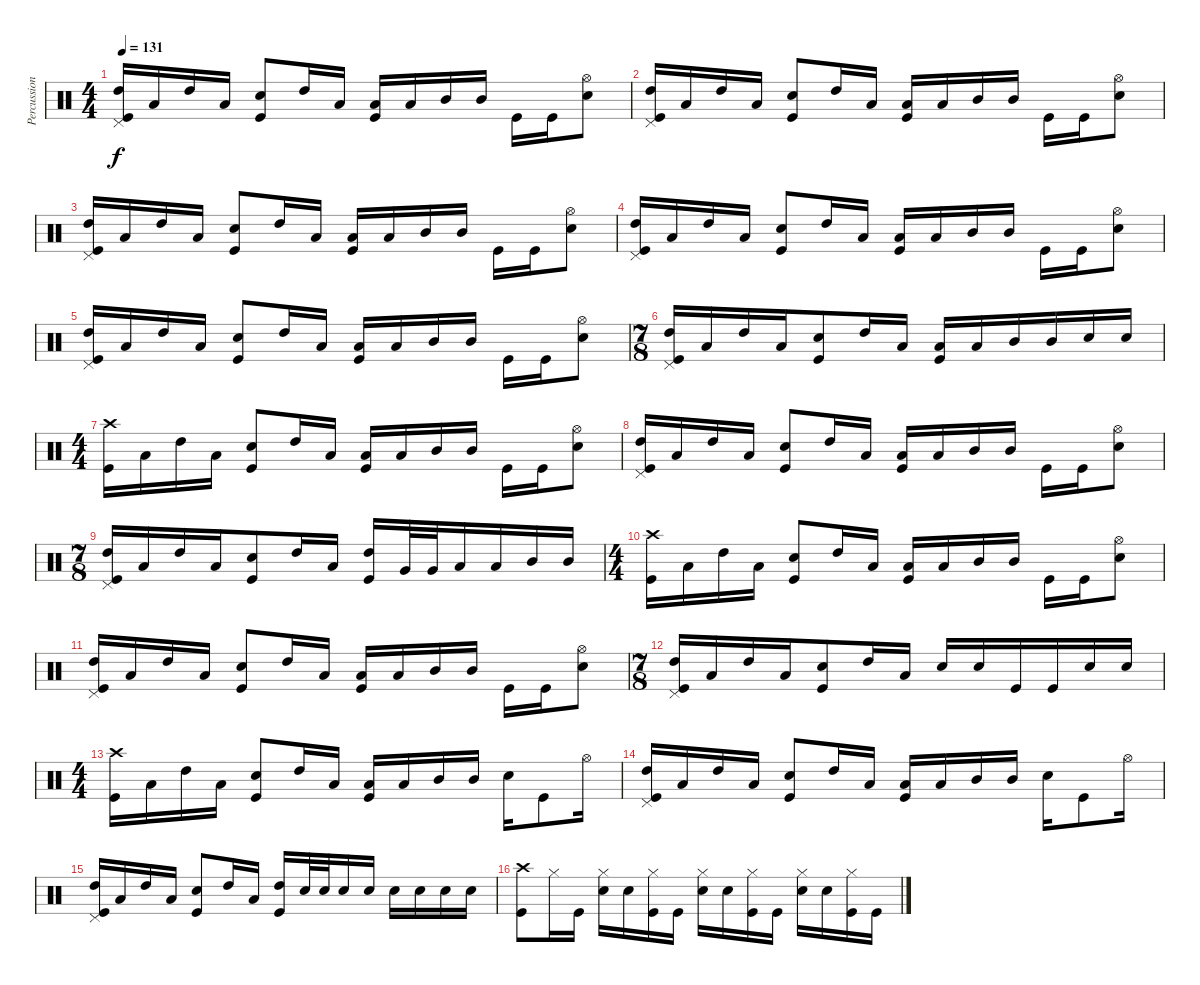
\track ("Percussion" "Percussion") {instrument percussion}
\staff {score}
\articulation defaults
\ts (4 4)
\tempo 131
\clef neutral
\ks c
("High Tom (hit)" "Kick (hit)" "Pedal Hi-Hat (hit)").16{dy f} "Low Tom (hit)".16 "High Tom (hit)".16 "Low Tom (hit)".16 ("Snare (hit) 2" "Kick (hit)").8 "High Tom (hit)".16 "Low Tom (hit)".16 ("Kick (hit)" "Low Tom (hit)").16 "Low Tom (hit)".16 "Mid Tom (hit)".16 "Mid Tom (hit)".16 "Kick (hit)".16 "Kick (hit)".16 ("Snare (hit) 2" "Hi-Hat (open)").8 |
("High Tom (hit)" "Kick (hit)" "Pedal Hi-Hat (hit)").16 "Low Tom (hit)".16 "High Tom (hit)".16 "Low Tom (hit)".16 ("Snare (hit) 2" "Kick (hit)").8 "High Tom (hit)".16 "Low Tom (hit)".16 ("Kick (hit)" "Low Tom (hit)").16 "Low Tom (hit)".16 "Mid Tom (hit)".16 "Mid Tom (hit)".16 "Kick (hit)".16 "Kick (hit)".16 ("Snare (hit) 2" "Hi-Hat (open)").8 |
("High Tom (hit)" "Kick (hit)" "Pedal Hi-Hat (hit)").16 "Low Tom (hit)".16 "High Tom (hit)".16 "Low Tom (hit)".16 ("Snare (hit) 2" "Kick (hit)").8 "High Tom (hit)".16 "Low Tom (hit)".16 ("Kick (hit)" "Low Tom (hit)").16 "Low Tom (hit)".16 "Mid Tom (hit)".16 "Mid Tom (hit)".16 "Kick (hit)".16 "Kick (hit)".16 ("Snare (hit) 2" "Hi-Hat (open)").8 |
("High Tom (hit)" "Kick (hit)" "Pedal Hi-Hat (hit)").16 "Low Tom (hit)".16 "High Tom (hit)".16 "Low Tom (hit)".16 ("Snare (hit) 2" "Kick (hit)").8 "High Tom (hit)".16 "Low Tom (hit)".16 ("Kick (hit)" "Low Tom (hit)").16 "Low Tom (hit)".16 "Mid Tom (hit)".16 "Mid Tom (hit)".16 "Kick (hit)".16 "Kick (hit)".16 ("Snare (hit) 2" "Hi-Hat (open)").8 |
("High Tom (hit)" "Kick (hit)" "Pedal Hi-Hat (hit)").16 "Low Tom (hit)".16 "High Tom (hit)".16 "Low Tom (hit)".16 ("Snare (hit) 2" "Kick (hit)").8 "High Tom (hit)".16 "Low Tom (hit)".16 ("Kick (hit)" "Low Tom (hit)").16 "Low Tom (hit)".16 "Mid Tom (hit)".16 "Mid Tom (hit)".16 "Kick (hit)".16 "Kick (hit)".16 ("Snare (hit) 2" "Hi-Hat (open)").8 |
\ts (7 8)
("High Tom (hit)" "Kick (hit)" "Pedal Hi-Hat (hit)").16 "Low Tom (hit)".16 "High Tom (hit)".16 "Low Tom (hit)".16 ("Snare (hit) 2" "Kick (hit)").8 "High Tom (hit)".16 "Low Tom (hit)".16 ("Kick (hit)" "Low Tom (hit)").16 "Low Tom (hit)".16 "Mid Tom (hit)".16 "Mid Tom (hit)".16 "Snare (hit) 2".16 "Snare (hit) 2".16 |
\ts (4 4)
("Kick (hit)" "Crash high (hit)").16 "Low Tom (hit)".16 "High Tom (hit)".16 "Low Tom (hit)".16 ("Snare (hit) 2" "Kick (hit)").8 "High Tom (hit)".16 "Low Tom (hit)".16 ("Kick (hit)" "Low Tom (hit)").16 "Low Tom (hit)".16 "Mid Tom (hit)".16 "Mid Tom (hit)".16 "Kick (hit)".16 "Kick (hit)".16 ("Snare (hit) 2" "Hi-Hat (open)").8 |
("High Tom (hit)" "Kick (hit)" "Pedal Hi-Hat (hit)").16 "Low Tom (hit)".16 "High Tom (hit)".16 "Low Tom (hit)".16 ("Snare (hit) 2" "Kick (hit)").8 "High Tom (hit)".16 "Low Tom (hit)".16 ("Kick (hit)" "Low Tom (hit)").16 "Low Tom (hit)".16 "Mid Tom (hit)".16 "Mid Tom (hit)".16 "Kick (hit)".16 "Kick (hit)".16 ("Snare (hit) 2" "Hi-Hat (open)").8 |
\ts (7 8)
("High Tom (hit)" "Kick (hit)" "Pedal Hi-Hat (hit)").16 "Low Tom (hit)".16 "High Tom (hit)".16 "Low Tom (hit)".16 ("Snare (hit) 2" "Kick (hit)").8 "High Tom (hit)".16 "Low Tom (hit)".16 ("Kick (hit)" "High Tom (hit)").16 "Very Low Tom (hit)".32 "Very Low Tom (hit)".32 "Low Tom (hit)".16 "Low Tom (hit)".16 "Mid Tom (hit)".16 "Mid Tom (hit)".16 |
\ts (4 4)
("Kick (hit)" "Crash high (hit)").16 "Low Tom (hit)".16 "High Tom (hit)".16 "Low Tom (hit)".16 ("Snare (hit) 2" "Kick (hit)").8 "High Tom (hit)".16 "Low Tom (hit)".16 ("Kick (hit)" "Low Tom (hit)").16 "Low Tom (hit)".16 "Mid Tom (hit)".16 "Mid Tom (hit)".16 "Kick (hit)".16 "Kick (hit)".16 ("Snare (hit) 2" "Hi-Hat (open)").8 |
("High Tom (hit)" "Kick (hit)" "Pedal Hi-Hat (hit)").16 "Low Tom (hit)".16 "High Tom (hit)".16 "Low Tom (hit)".16 ("Snare (hit) 2" "Kick (hit)").8 "High Tom (hit)".16 "Low Tom (hit)".16 ("Kick (hit)" "Low Tom (hit)").16 "Low Tom (hit)".16 "Mid Tom (hit)".16 "Mid Tom (hit)".16 "Kick (hit)".16 "Kick (hit)".16 ("Snare (hit) 2" "Hi-Hat (open)").8 |
\ts (7 8)
("High Tom (hit)" "Kick (hit)" "Pedal Hi-Hat (hit)").16 "Low Tom (hit)".16 "High Tom (hit)".16 "Low Tom (hit)".16 ("Snare (hit) 2" "Kick (hit)").8 "High Tom (hit)".16 "Low Tom (hit)".16 "Snare (hit) 2".16 "Snare (hit) 2".16 "Kick (hit)".16 "Kick (hit)".16 "Snare (hit) 2".16 "Snare (hit) 2".16 |
\ts (4 4)
("Kick (hit)" "Crash high (hit)").16 "Low Tom (hit)".16 "High Tom (hit)".16 "Low Tom (hit)".16 ("Snare (hit) 2" "Kick (hit)").8 "High Tom (hit)".16 "Low Tom (hit)".16 ("Kick (hit)" "Low Tom (hit)").16 "Low Tom (hit)".16 "Mid Tom (hit)".16 "Mid Tom (hit)".16 "Electric Snare (hit)".16 "Kick (hit)".8 "Hi-Hat (open)".16 |
("High Tom (hit)" "Kick (hit)" "Pedal Hi-Hat (hit)").16 "Low Tom (hit)".16 "High Tom (hit)".16 "Low Tom (hit)".16 ("Snare (hit) 2" "Kick (hit)").8 "High Tom (hit)".16 "Low Tom (hit)".16 ("Kick (hit)" "Low Tom (hit)").16 "Low Tom (hit)".16 "Mid Tom (hit)".16 "Mid Tom (hit)".16 "Electric Snare (hit)".16 "Kick (hit)".8 "Hi-Hat (open)".16 |
("High Tom (hit)" "Kick (hit)" "Pedal Hi-Hat (hit)").16 "Low Tom (hit)".16 "High Tom (hit)".16 "Low Tom (hit)".16 ("Snare (hit) 2" "Kick (hit)").8 "High Tom (hit)".16 "Low Tom (hit)".16 ("High Tom (hit)" "Kick (hit)").16 "Snare (hit) 2".32 "Snare (hit) 2".32 "Snare (hit) 2".16 "Snare (hit) 2".16 "Snare (hit) 2".16 "Snare (hit) 2".16 "Snare (hit) 2".16 "Snare (hit) 2".16 |
("Crash high (hit)" "Kick (hit)").8 "Hi-Hat (closed)".16 "Kick (hit)".16 ("Snare (hit) 2" "Hi-Hat (closed)").16 "Snare (hit) 2".16 ("Kick (hit)" "Hi-Hat (closed)").16 "Kick (hit)".16 ("Snare (hit) 2" "Hi-Hat (closed)").16 "Snare (hit) 2".16 ("Kick (hit)" "Hi-Hat (closed)").16 "Kick (hit)".16 ("Snare (hit) 2" "Hi-Hat (closed)").16 "Snare (hit) 2".16 ("Kick (hit)" "Hi-Hat (closed)").16 "Kick (hit)".16
